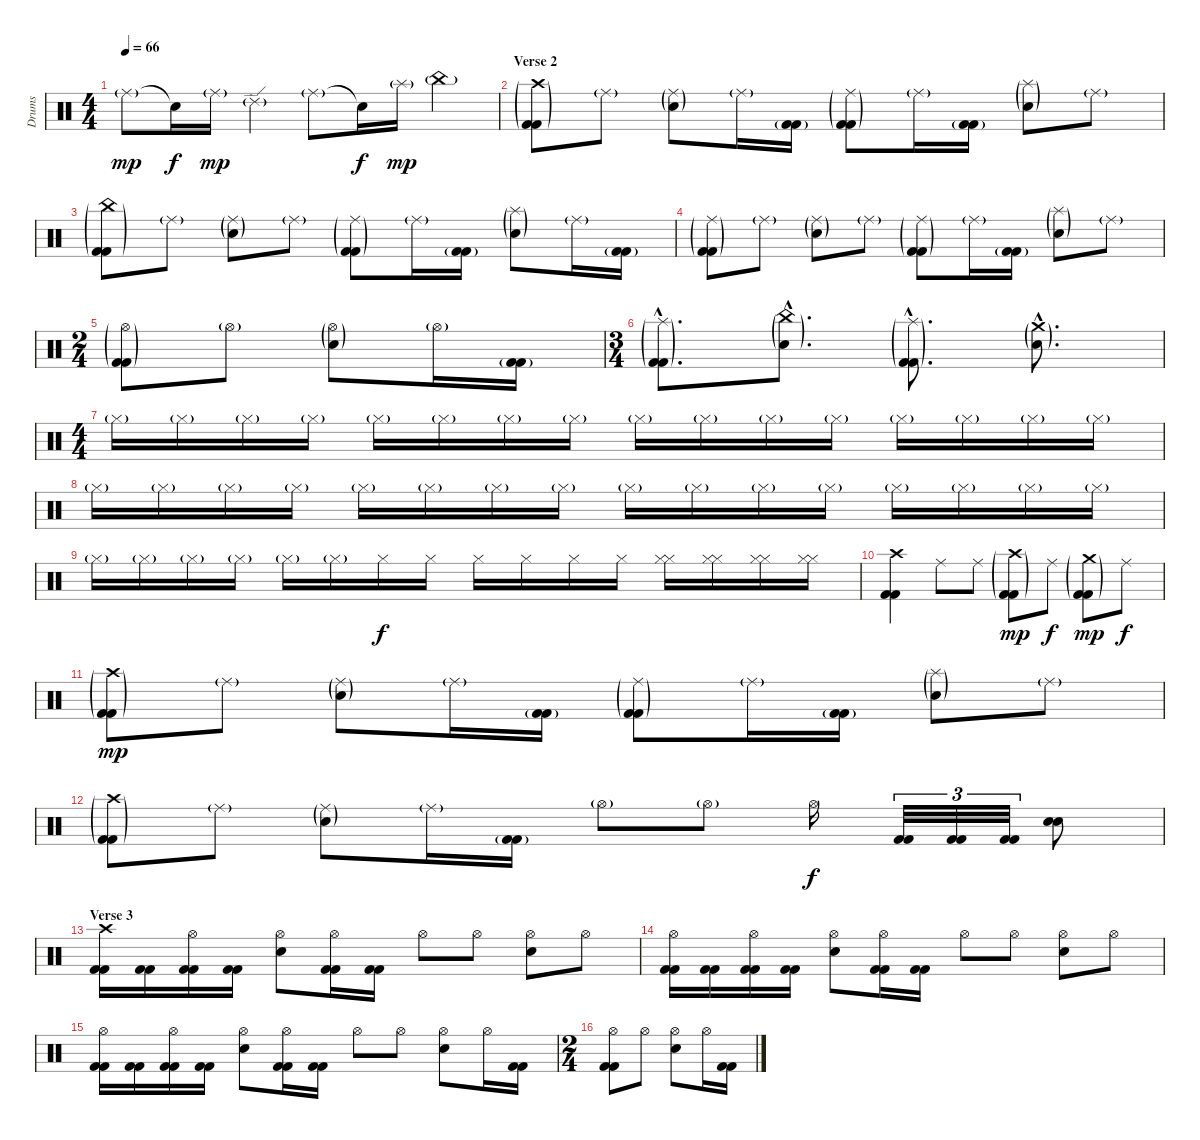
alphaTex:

\track ("Drums" "Drums") {instrument percussion}
\staff {score}
\articulation defaults
\ts (4 4)
\tempo 66
\clef neutral
\ks c "Ride (middle)"{g}.8{dy mp} "Snare (hit)"{t}.16{dy f} "Ride (middle)"{g}.16{dy mp} "Ride (edge) 2"{g}.4 "Ride (middle)"{g}.8 "Snare (hit)"{t}.16{dy f} "Splash (hit)"{g}.16{dy mp} "China (hit)"{g}.4
|
\section ("" "Verse 2")
("Crash high (hit)"{g} "Kick (hit) 2"{g} "Kick (hit) 2"{g}).8 "Ride (middle)"{g}.8 ("Ride (middle)"{g} "Snare (hit) 2"{g}).8 "Ride (middle)"{g}.16 ("Kick (hit) 2"{g} "Kick (hit) 2"{g}).16 ("Ride (middle)"{g} "Kick (hit) 2"{g} "Kick (hit) 2"{g}).8 "Ride (middle)"{g}.16 ("Kick (hit) 2"{g} "Kick (hit) 2"{g}).16 ("Splash (hit)"{g} "Snare (hit) 2"{g}).8 "Ride (middle)"{g}.8 |
("China (hit)"{g} "Kick (hit) 2"{g} "Kick (hit) 2"{g}).8 "Ride (middle)"{g}.8 ("Ride (middle)"{g} "Snare (hit) 2"{g}).8 "Ride (middle)"{g}.8 ("Ride (middle)"{g} "Kick (hit) 2"{g} "Kick (hit) 2"{g}).8 "Ride (middle)"{g}.16 ("Kick (hit) 2"{g} "Kick (hit) 2"{g}).16 ("Splash (hit)"{g} "Snare (hit) 2"{g}).8 "Ride (middle)"{g}.16 ("Kick (hit) 2"{g} "Kick (hit) 2"{g}).16 |
("Ride (middle)"{g} "Kick (hit) 2"{g} "Kick (hit) 2"{g}).8 "Ride (middle)"{g}.8 ("Ride (middle)"{g} "Snare (hit) 2"{g}).8 "Ride (middle)"{g}.8 ("Ride (middle)"{g} "Kick (hit) 2"{g} "Kick (hit) 2"{g}).8 "Ride (middle)"{g}.16 ("Kick (hit) 2"{g} "Kick (hit) 2"{g}).16 ("Splash (hit)"{g} "Snare (hit) 2"{g}).8 "Ride (middle)"{g}.8 |
\ts (2 4)
("Hi-Hat (open)"{g} "Kick (hit) 2"{g} "Kick (hit) 2"{g}).8 "Hi-Hat (open)"{g}.8 ("Hi-Hat (open)"{g} "Snare (hit) 2"{g}).8 "Hi-Hat (open)"{g}.16 ("Kick (hit) 2"{g} "Kick (hit) 2"{g}).16 |
\ts (3 4)
("Splash (hit)"{g hac} "Kick (hit) 2"{g hac} "Kick (hit) 2"{g hac}).8{d} ("China (hit)"{g hac} "Snare (hit) 2"{g hac}).8{d} ("Splash (hit)"{g hac} "Kick (hit) 2"{g hac} "Kick (hit) 2"{g hac}).8{d} ("Crash medium (hit)"{g hac} "Snare (hit) 2"{g hac}).8{d} |
\ts (4 4)
"Hi-Hat (closed)"{g}.16 "Hi-Hat (closed)"{g}.16 "Hi-Hat (closed)"{g}.16 "Hi-Hat (closed)"{g}.16 "Hi-Hat (closed)"{g}.16 "Hi-Hat (closed)"{g}.16 "Hi-Hat (closed)"{g}.16 "Hi-Hat (closed)"{g}.16 "Hi-Hat (closed)"{g}.16 "Hi-Hat (closed)"{g}.16 "Hi-Hat (closed)"{g}.16 "Hi-Hat (closed)"{g}.16 "Hi-Hat (closed)"{g}.16 "Hi-Hat (closed)"{g}.16 "Hi-Hat (closed)"{g}.16 "Hi-Hat (closed)"{g}.16 |
"Hi-Hat (closed)"{g}.16 "Hi-Hat (closed)"{g}.16 "Hi-Hat (closed)"{g}.16 "Hi-Hat (closed)"{g}.16 "Hi-Hat (closed)"{g}.16 "Hi-Hat (closed)"{g}.16 "Hi-Hat (closed)"{g}.16 "Hi-Hat (closed)"{g}.16 "Hi-Hat (closed)"{g}.16 "Hi-Hat (closed)"{g}.16 "Hi-Hat (closed)"{g}.16 "Hi-Hat (closed)"{g}.16 "Hi-Hat (closed)"{g}.16 "Hi-Hat (closed)"{g}.16 "Hi-Hat (closed)"{g}.16 "Hi-Hat (closed)"{g}.16 |
"Hi-Hat (closed)"{g}.16 "Hi-Hat (closed)"{g}.16 "Hi-Hat (closed)"{g}.16 "Hi-Hat (closed)"{g}.16 "Hi-Hat (closed)"{g}.16 "Hi-Hat (closed)"{g}.16 "Hi-Hat (closed)".16{dy f} "Hi-Hat (closed)".16 "Hi-Hat (closed)".16 "Hi-Hat (closed)".16 "Hi-Hat (closed)".16 "Hi-Hat (closed)".16 ("Hi-Hat (closed)" "Hi-Hat (closed)").16 ("Hi-Hat (closed)" "Hi-Hat (closed)").16 ("Hi-Hat (closed)" "Hi-Hat (closed)").16 ("Hi-Hat (closed)" "Hi-Hat (closed)").16 |
("Crash high (hit)" "Kick (hit) 2" "Kick (hit) 2").4 "Ride (middle)".8 "Ride (middle)".8 ("Crash high (hit)"{g} "Kick (hit) 2"{g} "Kick (hit) 2"{g}).8{dy mp} "Ride (middle)".8{dy f} ("Crash medium (hit)"{g} "Kick (hit) 2"{g} "Kick (hit) 2"{g}).8{dy mp} "Ride (middle)".8{dy f} |
("Crash high (hit)"{g} "Kick (hit) 2"{g} "Kick (hit) 2"{g}).8{dy mp} "Ride (middle)"{g}.8 ("Ride (middle)"{g} "Snare (hit) 2"{g}).8 "Ride (middle)"{g}.16 ("Kick (hit) 2"{g} "Kick (hit) 2"{g}).16 ("Ride (middle)"{g} "Kick (hit) 2"{g} "Kick (hit) 2"{g}).8 "Ride (middle)"{g}.16 ("Kick (hit) 2"{g} "Kick (hit) 2"{g}).16 ("Splash (hit)"{g} "Snare (hit) 2"{g}).8 "Ride (middle)"{g}.8 |
("Crash high (hit)"{g} "Kick (hit) 2"{g} "Kick (hit) 2"{g}).8 "Ride (middle)"{g}.8 ("Ride (middle)"{g} "Snare (hit) 2"{g}).8 "Ride (middle)"{g}.16 ("Kick (hit) 2"{g} "Kick (hit) 2"{g}).16 "Hi-Hat (open)"{g}.8 "Hi-Hat (open)"{g}.8 "Hi-Hat (open)".16{dy f} ("Kick (hit) 2" "Kick (hit) 2").32{tu (3 2)} ("Kick (hit) 2" "Kick (hit) 2").32{tu (3 2)} ("Kick (hit) 2" "Kick (hit) 2").32{tu (3 2)} ("Snare (hit) 2" "Snare (hit) 2").8 |
\section ("" "Verse 3")
("Crash high (hit)" "Kick (hit) 2" "Kick (hit) 2").16 ("Kick (hit) 2" "Kick (hit) 2").16 ("Hi-Hat (open)" "Kick (hit) 2" "Kick (hit) 2").16 ("Kick (hit) 2" "Kick (hit) 2").16 ("Hi-Hat (open)" "Snare (hit) 2").8 ("Hi-Hat (open)" "Kick (hit) 2" "Kick (hit) 2").16 ("Kick (hit) 2" "Kick (hit) 2").16 "Hi-Hat (open)".8 "Hi-Hat (open)".8 ("Hi-Hat (open)" "Snare (hit) 2").8 "Hi-Hat (open)".8 |
("Hi-Hat (open)" "Kick (hit) 2" "Kick (hit) 2").16 ("Kick (hit) 2" "Kick (hit) 2").16 ("Hi-Hat (open)" "Kick (hit) 2" "Kick (hit) 2").16 ("Kick (hit) 2" "Kick (hit) 2").16 ("Hi-Hat (open)" "Snare (hit) 2").8 ("Hi-Hat (open)" "Kick (hit) 2" "Kick (hit) 2").16 ("Kick (hit) 2" "Kick (hit) 2").16 "Hi-Hat (open)".8 "Hi-Hat (open)".8 ("Hi-Hat (open)" "Snare (hit) 2").8 "Hi-Hat (open)".8 |
("Hi-Hat (open)" "Kick (hit) 2" "Kick (hit) 2").16 ("Kick (hit) 2" "Kick (hit) 2").16 ("Hi-Hat (open)" "Kick (hit) 2" "Kick (hit) 2").16 ("Kick (hit) 2" "Kick (hit) 2").16 ("Hi-Hat (open)" "Snare (hit) 2").8 ("Hi-Hat (open)" "Kick (hit) 2" "Kick (hit) 2").16 ("Kick (hit) 2" "Kick (hit) 2").16 "Hi-Hat (open)".8 "Hi-Hat (open)".8 ("Hi-Hat (open)" "Snare (hit) 2").8 "Hi-Hat (open)".16 ("Kick (hit) 2" "Kick (hit) 2").16 |
\ts (2 4)
("Hi-Hat (open)" "Kick (hit) 2" "Kick (hit) 2").8 "Hi-Hat (open)".8 ("Hi-Hat (open)" "Snare (hit) 2").8 "Hi-Hat (open)".16 ("Kick (hit) 2" "Kick (hit) 2").16
